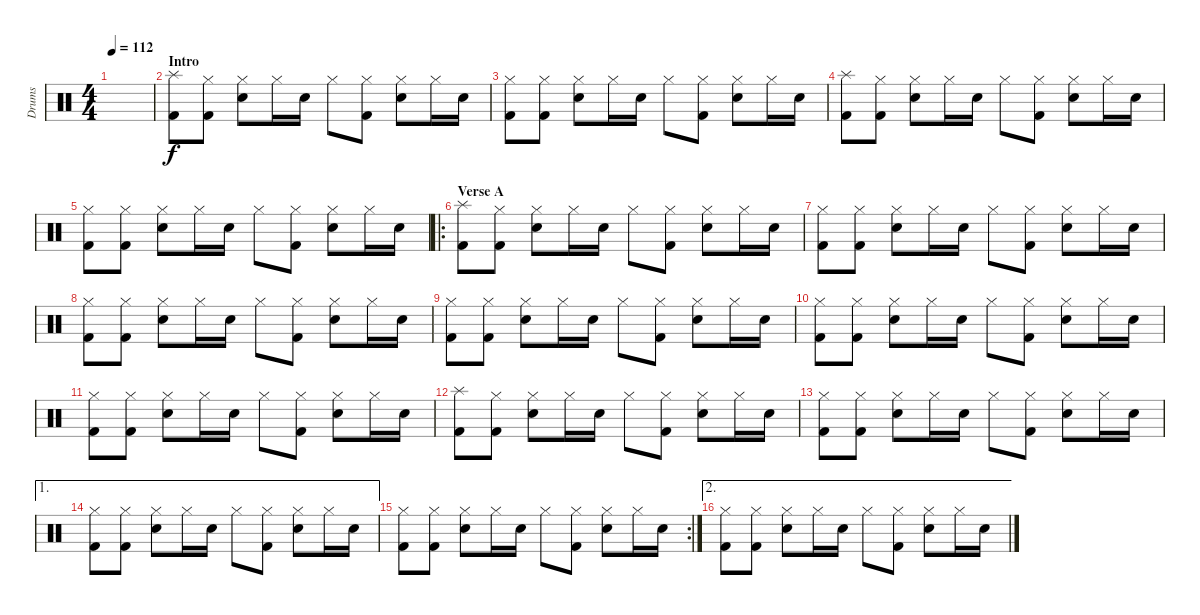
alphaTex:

\track ("Drums" "Drums") {instrument percussion}
\staff {score}
\articulation defaults
\ts (4 4)
\tempo 112
\clef neutral
\ks c
|
\section ("" "Intro")
("Splash (hit)" "Kick (hit) 2").8 ("Hi-Hat (closed)" "Kick (hit) 2").8 ("Hi-Hat (closed)" "Electric Snare (hit)").8 "Hi-Hat (closed)".16 "Electric Snare (hit)".16 "Hi-Hat (closed)".8 ("Hi-Hat (closed)" "Kick (hit) 2").8 ("Hi-Hat (closed)" "Electric Snare (hit)").8 "Hi-Hat (closed)".16 "Electric Snare (hit)".16 |
("Hi-Hat (closed)" "Kick (hit) 2").8 ("Hi-Hat (closed)" "Kick (hit) 2").8 ("Hi-Hat (closed)" "Electric Snare (hit)").8 "Hi-Hat (closed)".16 "Electric Snare (hit)".16 "Hi-Hat (closed)".8 ("Hi-Hat (closed)" "Kick (hit) 2").8 ("Hi-Hat (closed)" "Electric Snare (hit)").8 "Hi-Hat (closed)".16 "Electric Snare (hit)".16 |
("Splash (hit)" "Kick (hit) 2").8 ("Hi-Hat (closed)" "Kick (hit) 2").8 ("Hi-Hat (closed)" "Electric Snare (hit)").8 "Hi-Hat (closed)".16 "Electric Snare (hit)".16 "Hi-Hat (closed)".8 ("Hi-Hat (closed)" "Kick (hit) 2").8 ("Hi-Hat (closed)" "Electric Snare (hit)").8 "Hi-Hat (closed)".16 "Electric Snare (hit)".16 |
("Hi-Hat (closed)" "Kick (hit) 2").8 ("Hi-Hat (closed)" "Kick (hit) 2").8 ("Hi-Hat (closed)" "Electric Snare (hit)").8 "Hi-Hat (closed)".16 "Electric Snare (hit)".16 "Hi-Hat (closed)".8 ("Hi-Hat (closed)" "Kick (hit) 2").8 ("Hi-Hat (closed)" "Electric Snare (hit)").8 "Hi-Hat (closed)".16 "Electric Snare (hit)".16 |
\ro
\section ("" "Verse A")
("Splash (hit)" "Kick (hit) 2").8 ("Hi-Hat (closed)" "Kick (hit) 2").8 ("Hi-Hat (closed)" "Electric Snare (hit)").8 "Hi-Hat (closed)".16 "Electric Snare (hit)".16 "Hi-Hat (closed)".8 ("Hi-Hat (closed)" "Kick (hit) 2").8 ("Hi-Hat (closed)" "Electric Snare (hit)").8 "Hi-Hat (closed)".16 "Electric Snare (hit)".16 |
("Hi-Hat (closed)" "Kick (hit) 2").8 ("Hi-Hat (closed)" "Kick (hit) 2").8 ("Hi-Hat (closed)" "Electric Snare (hit)").8 "Hi-Hat (closed)".16 "Electric Snare (hit)".16 "Hi-Hat (closed)".8 ("Hi-Hat (closed)" "Kick (hit) 2").8 ("Hi-Hat (closed)" "Electric Snare (hit)").8 "Hi-Hat (closed)".16 "Electric Snare (hit)".16 |
("Hi-Hat (closed)" "Kick (hit) 2").8 ("Hi-Hat (closed)" "Kick (hit) 2").8 ("Hi-Hat (closed)" "Electric Snare (hit)").8 "Hi-Hat (closed)".16 "Electric Snare (hit)".16 "Hi-Hat (closed)".8 ("Hi-Hat (closed)" "Kick (hit) 2").8 ("Hi-Hat (closed)" "Electric Snare (hit)").8 "Hi-Hat (closed)".16 "Electric Snare (hit)".16 |
("Hi-Hat (closed)" "Kick (hit) 2").8 ("Hi-Hat (closed)" "Kick (hit) 2").8 ("Hi-Hat (closed)" "Electric Snare (hit)").8 "Hi-Hat (closed)".16 "Electric Snare (hit)".16 "Hi-Hat (closed)".8 ("Hi-Hat (closed)" "Kick (hit) 2").8 ("Hi-Hat (closed)" "Electric Snare (hit)").8 "Hi-Hat (closed)".16 "Electric Snare (hit)".16 |
("Hi-Hat (closed)" "Kick (hit) 2").8 ("Hi-Hat (closed)" "Kick (hit) 2").8 ("Hi-Hat (closed)" "Electric Snare (hit)").8 "Hi-Hat (closed)".16 "Electric Snare (hit)".16 "Hi-Hat (closed)".8 ("Hi-Hat (closed)" "Kick (hit) 2").8 ("Hi-Hat (closed)" "Electric Snare (hit)").8 "Hi-Hat (closed)".16 "Electric Snare (hit)".16 |
("Hi-Hat (closed)" "Kick (hit) 2").8 ("Hi-Hat (closed)" "Kick (hit) 2").8 ("Hi-Hat (closed)" "Electric Snare (hit)").8 "Hi-Hat (closed)".16 "Electric Snare (hit)".16 "Hi-Hat (closed)".8 ("Hi-Hat (closed)" "Kick (hit) 2").8 ("Hi-Hat (closed)" "Electric Snare (hit)").8 "Hi-Hat (closed)".16 "Electric Snare (hit)".16 |
("Splash (hit)" "Kick (hit) 2").8 ("Hi-Hat (closed)" "Kick (hit) 2").8 ("Hi-Hat (closed)" "Electric Snare (hit)").8 "Hi-Hat (closed)".16 "Electric Snare (hit)".16 "Hi-Hat (closed)".8 ("Hi-Hat (closed)" "Kick (hit) 2").8 ("Hi-Hat (closed)" "Electric Snare (hit)").8 "Hi-Hat (closed)".16 "Electric Snare (hit)".16 |
("Hi-Hat (closed)" "Kick (hit) 2").8 ("Hi-Hat (closed)" "Kick (hit) 2").8 ("Hi-Hat (closed)" "Electric Snare (hit)").8 "Hi-Hat (closed)".16 "Electric Snare (hit)".16 "Hi-Hat (closed)".8 ("Hi-Hat (closed)" "Kick (hit) 2").8 ("Hi-Hat (closed)" "Electric Snare (hit)").8 "Hi-Hat (closed)".16 "Electric Snare (hit)".16 |
\ae 1
("Hi-Hat (closed)" "Kick (hit) 2").8 ("Hi-Hat (closed)" "Kick (hit) 2").8 ("Hi-Hat (closed)" "Electric Snare (hit)").8 "Hi-Hat (closed)".16 "Electric Snare (hit)".16 "Hi-Hat (closed)".8 ("Hi-Hat (closed)" "Kick (hit) 2").8 ("Hi-Hat (closed)" "Electric Snare (hit)").8 "Hi-Hat (closed)".16 "Electric Snare (hit)".16 |
\rc 2
("Hi-Hat (closed)" "Kick (hit) 2").8 ("Hi-Hat (closed)" "Kick (hit) 2").8 ("Hi-Hat (closed)" "Electric Snare (hit)").8 "Hi-Hat (closed)".16 "Electric Snare (hit)".16 "Hi-Hat (closed)".8 ("Hi-Hat (closed)" "Kick (hit) 2").8 ("Hi-Hat (closed)" "Electric Snare (hit)").8 "Hi-Hat (closed)".16 "Electric Snare (hit)".16 |
\ae 2
("Hi-Hat (closed)" "Kick (hit) 2").8 ("Hi-Hat (closed)" "Kick (hit) 2").8 ("Hi-Hat (closed)" "Electric Snare (hit)").8 "Hi-Hat (closed)".16 "Electric Snare (hit)".16 "Hi-Hat (closed)".8 ("Hi-Hat (closed)" "Kick (hit) 2").8 ("Hi-Hat (closed)" "Electric Snare (hit)").8 "Hi-Hat (closed)".16 "Electric Snare (hit)".16
